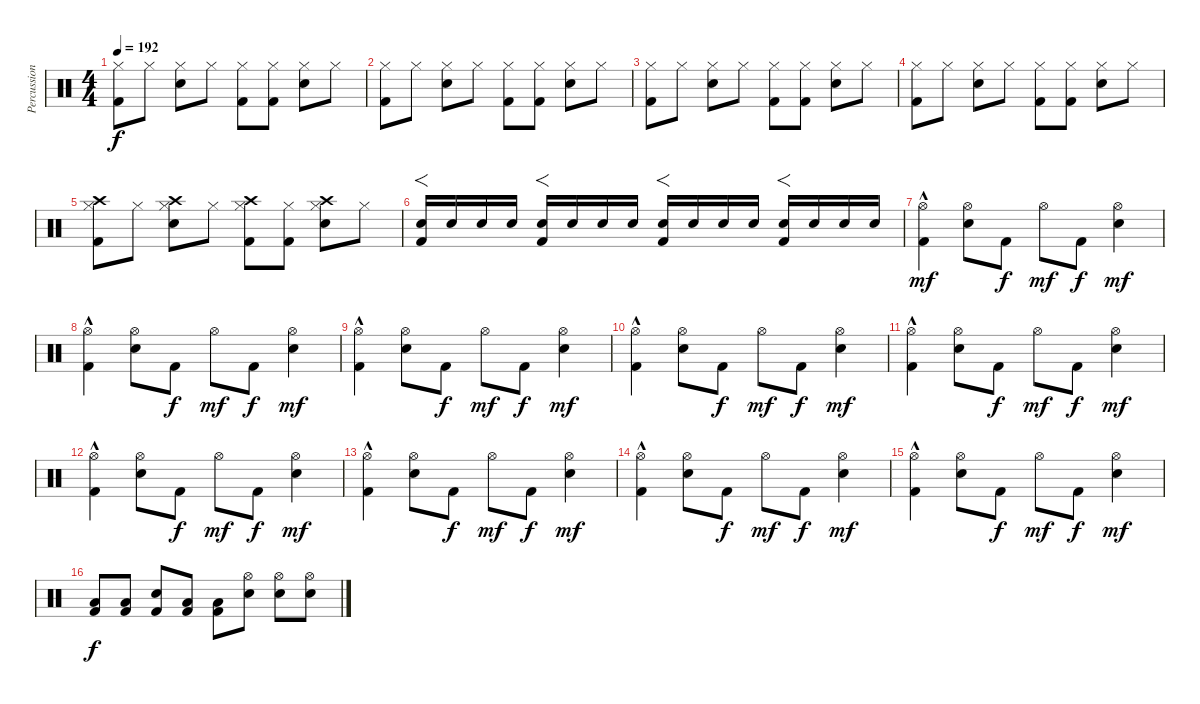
\track ("Percussions" "Percussion") {instrument percussion}
\staff {score}
\articulation defaults
\ts (4 4)
\tempo 192
\clef neutral
\ks c
("Hi-Hat (closed)" "Kick (hit) 2").8{dy f} "Hi-Hat (closed)".8 ("Snare (hit) 2" "Hi-Hat (closed)").8 "Hi-Hat (closed)".8 ("Hi-Hat (closed)" "Kick (hit) 2").8 ("Hi-Hat (closed)" "Kick (hit) 2").8 ("Snare (hit) 2" "Hi-Hat (closed)").8 "Hi-Hat (closed)".8 |
("Hi-Hat (closed)" "Kick (hit) 2").8 "Hi-Hat (closed)".8 ("Snare (hit) 2" "Hi-Hat (closed)").8 "Hi-Hat (closed)".8 ("Hi-Hat (closed)" "Kick (hit) 2").8 ("Hi-Hat (closed)" "Kick (hit) 2").8 ("Snare (hit) 2" "Hi-Hat (closed)").8 "Hi-Hat (closed)".8 |
("Hi-Hat (closed)" "Kick (hit) 2").8 "Hi-Hat (closed)".8 ("Snare (hit) 2" "Hi-Hat (closed)").8 "Hi-Hat (closed)".8 ("Hi-Hat (closed)" "Kick (hit) 2").8 ("Hi-Hat (closed)" "Kick (hit) 2").8 ("Snare (hit) 2" "Hi-Hat (closed)").8 "Hi-Hat (closed)".8 |
("Hi-Hat (closed)" "Kick (hit) 2").8 "Hi-Hat (closed)".8 ("Snare (hit) 2" "Hi-Hat (closed)").8 "Hi-Hat (closed)".8 ("Hi-Hat (closed)" "Kick (hit) 2").8 ("Hi-Hat (closed)" "Kick (hit) 2").8 ("Snare (hit) 2" "Hi-Hat (closed)").8 "Hi-Hat (closed)".8 |
("Hi-Hat (closed)" "Kick (hit) 2" "Crash high (hit)").8 "Hi-Hat (closed)".8 ("Snare (hit) 2" "Hi-Hat (closed)" "Crash high (hit)").8 "Hi-Hat (closed)".8 ("Hi-Hat (closed)" "Kick (hit) 2" "Crash high (hit)").8 ("Hi-Hat (closed)" "Kick (hit) 2").8 ("Snare (hit) 2" "Hi-Hat (closed)" "Crash high (hit)").8 "Hi-Hat (closed)".8 |
("Snare (hit) 2" "Kick (hit) 2").16{f} "Snare (hit) 2".16 "Snare (hit) 2".16 "Snare (hit) 2".16 ("Snare (hit) 2" "Kick (hit) 2").16{f} "Snare (hit) 2".16 "Snare (hit) 2".16 "Snare (hit) 2".16 ("Snare (hit) 2" "Kick (hit) 2").16{f} "Snare (hit) 2".16 "Snare (hit) 2".16 "Snare (hit) 2".16 ("Snare (hit) 2" "Kick (hit) 2").16{f} "Snare (hit) 2".16 "Snare (hit) 2".16 "Snare (hit) 2".16 |
("Hi-Hat (open)" "Kick (hit) 2"{hac}).4{dy mf} ("Snare (hit) 2" "Hi-Hat (open)").8 "Kick (hit) 2".8{dy f} "Hi-Hat (open)".8{dy mf} "Kick (hit) 2".8{dy f} ("Snare (hit) 2" "Hi-Hat (open)").4{dy mf} |
("Hi-Hat (open)" "Kick (hit) 2"{hac}).4 ("Snare (hit) 2" "Hi-Hat (open)").8 "Kick (hit) 2".8{dy f} "Hi-Hat (open)".8{dy mf} "Kick (hit) 2".8{dy f} ("Snare (hit) 2" "Hi-Hat (open)").4{dy mf} |
("Hi-Hat (open)" "Kick (hit) 2"{hac}).4 ("Snare (hit) 2" "Hi-Hat (open)").8 "Kick (hit) 2".8{dy f} "Hi-Hat (open)".8{dy mf} "Kick (hit) 2".8{dy f} ("Snare (hit) 2" "Hi-Hat (open)").4{dy mf} |
("Hi-Hat (open)" "Kick (hit) 2"{hac}).4 ("Snare (hit) 2" "Hi-Hat (open)").8 "Kick (hit) 2".8{dy f} "Hi-Hat (open)".8{dy mf} "Kick (hit) 2".8{dy f} ("Snare (hit) 2" "Hi-Hat (open)").4{dy mf} |
("Hi-Hat (open)" "Kick (hit) 2"{hac}).4 ("Snare (hit) 2" "Hi-Hat (open)").8 "Kick (hit) 2".8{dy f} "Hi-Hat (open)".8{dy mf} "Kick (hit) 2".8{dy f} ("Snare (hit) 2" "Hi-Hat (open)").4{dy mf} |
("Hi-Hat (open)" "Kick (hit) 2"{hac}).4 ("Snare (hit) 2" "Hi-Hat (open)").8 "Kick (hit) 2".8{dy f} "Hi-Hat (open)".8{dy mf} "Kick (hit) 2".8{dy f} ("Snare (hit) 2" "Hi-Hat (open)").4{dy mf} |
("Hi-Hat (open)" "Kick (hit) 2"{hac}).4 ("Snare (hit) 2" "Hi-Hat (open)").8 "Kick (hit) 2".8{dy f} "Hi-Hat (open)".8{dy mf} "Kick (hit) 2".8{dy f} ("Snare (hit) 2" "Hi-Hat (open)").4{dy mf} |
("Hi-Hat (open)" "Kick (hit) 2"{hac}).4 ("Snare (hit) 2" "Hi-Hat (open)").8 "Kick (hit) 2".8{dy f} "Hi-Hat (open)".8{dy mf} "Kick (hit) 2".8{dy f} ("Snare (hit) 2" "Hi-Hat (open)").4{dy mf} |
("Hi-Hat (open)" "Kick (hit) 2"{hac}).4 ("Snare (hit) 2" "Hi-Hat (open)").8 "Kick (hit) 2".8{dy f} "Hi-Hat (open)".8{dy mf} "Kick (hit) 2".8{dy f} ("Snare (hit) 2" "Hi-Hat (open)").4{dy mf} |
("Low Floor Tom (hit)" "Kick (hit) 2").8{dy f} ("Low Floor Tom (hit)" "Kick (hit) 2").8 ("Snare (hit) 2" "Kick (hit) 2").8 ("Low Floor Tom (hit)" "Kick (hit) 2").8 ("Low Floor Tom (hit)" "Kick (hit) 2").8 ("Snare (hit) 2" "Hi-Hat (open)").8 ("Snare (hit) 2" "Hi-Hat (open)").8 ("Snare (hit) 2" "Hi-Hat (open)").8
